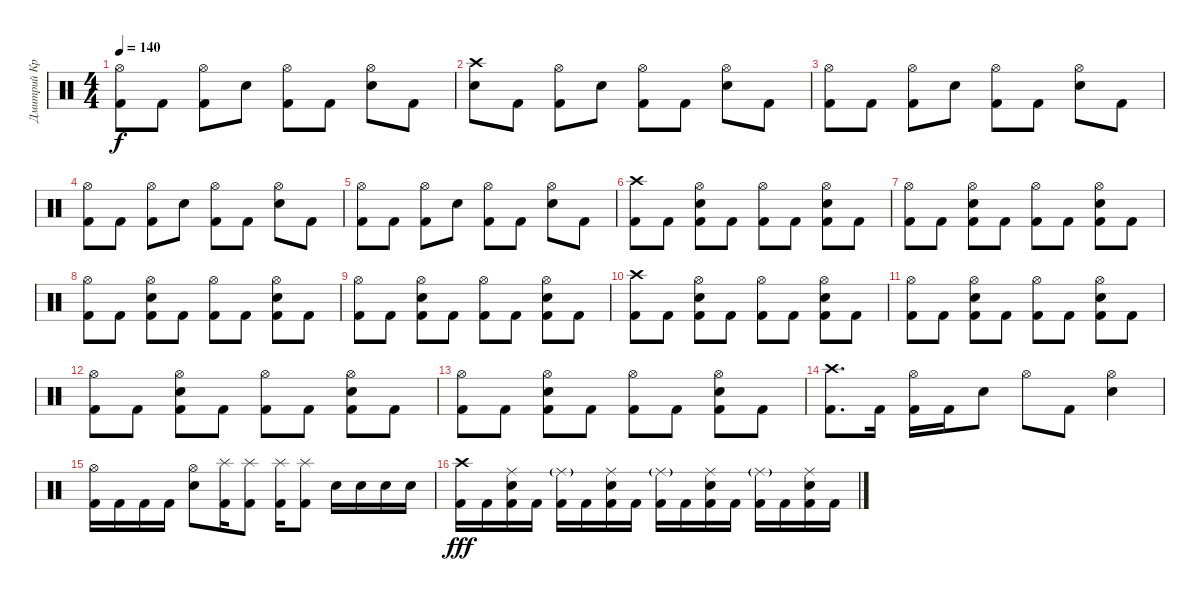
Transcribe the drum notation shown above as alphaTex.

\track ("Дмитрий Кривенков" "Дмитрий Кр") {instrument percussion}
\staff {score}
\articulation defaults
\ts (4 4)
\tempo 140
\clef neutral
\ks c
("Hi-Hat (open)" "Kick (hit) 2").8{dy f} "Kick (hit) 2".8 ("Hi-Hat (open)" "Kick (hit) 2").8 "Electric Snare (hit)".8 ("Hi-Hat (open)" "Kick (hit) 2").8 "Kick (hit) 2".8 ("Hi-Hat (open)" "Electric Snare (hit)").8 "Kick (hit) 2".8 |
("Crash high (hit)" "Electric Snare (hit)").8 "Kick (hit) 2".8 ("Hi-Hat (open)" "Kick (hit) 2").8 "Electric Snare (hit)".8 ("Hi-Hat (open)" "Kick (hit) 2").8 "Kick (hit) 2".8 ("Hi-Hat (open)" "Electric Snare (hit)").8 "Kick (hit) 2".8 |
("Hi-Hat (open)" "Kick (hit) 2").8 "Kick (hit) 2".8 ("Hi-Hat (open)" "Kick (hit) 2").8 "Electric Snare (hit)".8 ("Hi-Hat (open)" "Kick (hit) 2").8 "Kick (hit) 2".8 ("Hi-Hat (open)" "Electric Snare (hit)").8 "Kick (hit) 2".8 |
("Hi-Hat (open)" "Kick (hit) 2").8 "Kick (hit) 2".8 ("Hi-Hat (open)" "Kick (hit) 2").8 "Electric Snare (hit)".8 ("Hi-Hat (open)" "Kick (hit) 2").8 "Kick (hit) 2".8 ("Hi-Hat (open)" "Electric Snare (hit)").8 "Kick (hit) 2".8 |
("Hi-Hat (open)" "Kick (hit) 2").8 "Kick (hit) 2".8 ("Hi-Hat (open)" "Kick (hit) 2").8 "Electric Snare (hit)".8 ("Hi-Hat (open)" "Kick (hit) 2").8 "Kick (hit) 2".8 ("Hi-Hat (open)" "Electric Snare (hit)").8 "Kick (hit) 2".8 |
("Crash high (hit)" "Kick (hit) 2").8 "Kick (hit) 2".8 ("Hi-Hat (open)" "Electric Snare (hit)" "Kick (hit) 2").8 "Kick (hit) 2".8 ("Hi-Hat (open)" "Kick (hit) 2").8 "Kick (hit) 2".8 ("Hi-Hat (open)" "Electric Snare (hit)" "Kick (hit) 2").8 "Kick (hit) 2".8 |
("Hi-Hat (open)" "Kick (hit) 2").8 "Kick (hit) 2".8 ("Hi-Hat (open)" "Electric Snare (hit)" "Kick (hit) 2").8 "Kick (hit) 2".8 ("Hi-Hat (open)" "Kick (hit) 2").8 "Kick (hit) 2".8 ("Hi-Hat (open)" "Electric Snare (hit)" "Kick (hit) 2").8 "Kick (hit) 2".8 |
("Hi-Hat (open)" "Kick (hit) 2").8 "Kick (hit) 2".8 ("Hi-Hat (open)" "Electric Snare (hit)" "Kick (hit) 2").8 "Kick (hit) 2".8 ("Hi-Hat (open)" "Kick (hit) 2").8 "Kick (hit) 2".8 ("Hi-Hat (open)" "Electric Snare (hit)" "Kick (hit) 2").8 "Kick (hit) 2".8 |
("Hi-Hat (open)" "Kick (hit) 2").8 "Kick (hit) 2".8 ("Hi-Hat (open)" "Electric Snare (hit)" "Kick (hit) 2").8 "Kick (hit) 2".8 ("Hi-Hat (open)" "Kick (hit) 2").8 "Kick (hit) 2".8 ("Hi-Hat (open)" "Electric Snare (hit)" "Kick (hit) 2").8 "Kick (hit) 2".8 |
("Crash high (hit)" "Kick (hit) 2").8 "Kick (hit) 2".8 ("Hi-Hat (open)" "Electric Snare (hit)" "Kick (hit) 2").8 "Kick (hit) 2".8 ("Hi-Hat (open)" "Kick (hit) 2").8 "Kick (hit) 2".8 ("Hi-Hat (open)" "Electric Snare (hit)" "Kick (hit) 2").8 "Kick (hit) 2".8 |
("Hi-Hat (open)" "Kick (hit) 2").8 "Kick (hit) 2".8 ("Hi-Hat (open)" "Electric Snare (hit)" "Kick (hit) 2").8 "Kick (hit) 2".8 ("Hi-Hat (open)" "Kick (hit) 2").8 "Kick (hit) 2".8 ("Hi-Hat (open)" "Electric Snare (hit)" "Kick (hit) 2").8 "Kick (hit) 2".8 |
("Hi-Hat (open)" "Kick (hit) 2").8 "Kick (hit) 2".8 ("Hi-Hat (open)" "Electric Snare (hit)" "Kick (hit) 2").8 "Kick (hit) 2".8 ("Hi-Hat (open)" "Kick (hit) 2").8 "Kick (hit) 2".8 ("Hi-Hat (open)" "Electric Snare (hit)" "Kick (hit) 2").8 "Kick (hit) 2".8 |
("Hi-Hat (open)" "Kick (hit) 2").8 "Kick (hit) 2".8 ("Hi-Hat (open)" "Electric Snare (hit)" "Kick (hit) 2").8 "Kick (hit) 2".8 ("Hi-Hat (open)" "Kick (hit) 2").8 "Kick (hit) 2".8 ("Hi-Hat (open)" "Electric Snare (hit)" "Kick (hit) 2").8 "Kick (hit) 2".8 |
("Crash high (hit)" "Kick (hit) 2").8{d} "Kick (hit) 2".16 ("Hi-Hat (open)" "Kick (hit) 2").16 "Kick (hit) 2".16 "Electric Snare (hit)".8 "Hi-Hat (open)".8 "Kick (hit) 2".8 ("Hi-Hat (open)" "Electric Snare (hit)").4 |
("Hi-Hat (open)" "Kick (hit) 2").16 "Kick (hit) 2".16 "Kick (hit) 2".16 "Kick (hit) 2".16 ("Hi-Hat (open)" "Electric Snare (hit)").8 ("Splash (hit)" "Kick (hit) 2").16 ("Splash (hit)" "Kick (hit) 2").8 ("Splash (hit)" "Kick (hit) 2").16 ("Splash (hit)" "Kick (hit) 2").8 "Electric Snare (hit)".16 "Electric Snare (hit)".16 "Electric Snare (hit)".16 "Electric Snare (hit)".16 |
("Crash high (hit)" "Kick (hit) 2").16{dy fff} "Kick (hit) 2".16 ("Ride (middle)" "Electric Snare (hit)" "Kick (hit) 2").16 "Kick (hit) 2".16 ("Ride (middle)"{g} "Kick (hit) 2").16 "Kick (hit) 2".16 ("Ride (middle)" "Electric Snare (hit)" "Kick (hit) 2").16 "Kick (hit) 2".16 ("Ride (middle)"{g} "Kick (hit) 2").16 "Kick (hit) 2".16 ("Ride (middle)" "Electric Snare (hit)" "Kick (hit) 2").16 "Kick (hit) 2".16 ("Ride (middle)"{g} "Kick (hit) 2").16 "Kick (hit) 2".16 ("Ride (middle)" "Electric Snare (hit)" "Kick (hit) 2").16 "Kick (hit) 2".16
